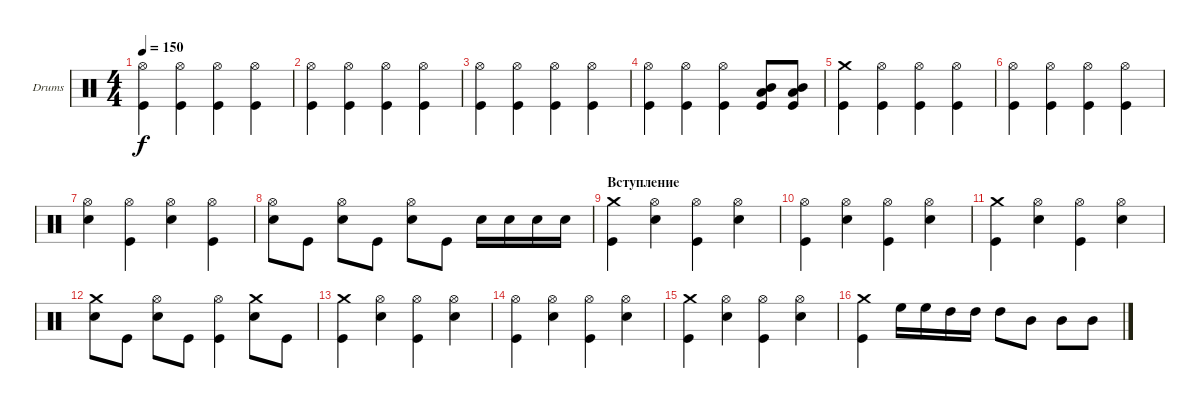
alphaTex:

\defaultSystemsLayout 4
\bracketExtendMode groupsimilarinstruments
\firstSystemTrackNameOrientation horizontal
\otherSystemsTrackNameOrientation horizontal
\track ("Drumkit" "Drums") {instrument percussion}
\staff {score}
\articulation defaults
\ts (4 4)
\tempo 150
\clef neutral
\ks c
("Hi-Hat (open)" "Kick (hit)").4{dy f} ("Hi-Hat (open)" "Kick (hit)").4 ("Hi-Hat (open)" "Kick (hit)").4 ("Hi-Hat (open)" "Kick (hit)").4 |
("Hi-Hat (open)" "Kick (hit)").4 ("Hi-Hat (open)" "Kick (hit)").4 ("Hi-Hat (open)" "Kick (hit)").4 ("Hi-Hat (open)" "Kick (hit)").4 |
("Hi-Hat (open)" "Kick (hit)").4 ("Hi-Hat (open)" "Kick (hit)").4 ("Hi-Hat (open)" "Kick (hit)").4 ("Hi-Hat (open)" "Kick (hit)").4 |
("Hi-Hat (open)" "Kick (hit)").4 ("Hi-Hat (open)" "Kick (hit)").4 ("Hi-Hat (open)" "Kick (hit)").4 ("Kick (hit)" "Low Tom (hit)" "Mid Tom (hit)").8 ("Kick (hit)" "Low Tom (hit)" "Mid Tom (hit)").8 |
("Kick (hit)" "Crash medium (hit)").4 ("Hi-Hat (open)" "Kick (hit)").4 ("Hi-Hat (open)" "Kick (hit)").4 ("Hi-Hat (open)" "Kick (hit)").4 |
("Hi-Hat (open)" "Kick (hit)").4 ("Hi-Hat (open)" "Kick (hit)").4 ("Hi-Hat (open)" "Kick (hit)").4 ("Hi-Hat (open)" "Kick (hit)").4 |
("Hi-Hat (open)" "Snare (hit) 2").4 ("Hi-Hat (open)" "Kick (hit)").4 ("Hi-Hat (open)" "Snare (hit) 2").4 ("Hi-Hat (open)" "Kick (hit)").4 |
("Hi-Hat (open)" "Snare (hit) 2").8 "Kick (hit)".8 ("Hi-Hat (open)" "Snare (hit) 2").8 "Kick (hit)".8 ("Hi-Hat (open)" "Snare (hit) 2").8 "Kick (hit)".8 "Snare (hit) 2".16 "Snare (hit) 2".16 "Snare (hit) 2".16 "Snare (hit) 2".16 |
\section ("" "Вступление")
("Kick (hit)" "Crash medium (hit)").4 ("Hi-Hat (open)" "Snare (hit) 2").4 ("Hi-Hat (open)" "Kick (hit)").4 ("Hi-Hat (open)" "Snare (hit) 2").4 |
("Hi-Hat (open)" "Kick (hit)").4 ("Snare (hit) 2" "Hi-Hat (open)").4 ("Kick (hit)" "Hi-Hat (open)").4 ("Snare (hit) 2" "Hi-Hat (open)").4 |
("Kick (hit)" "Crash medium (hit)").4 ("Hi-Hat (open)" "Snare (hit) 2").4 ("Hi-Hat (open)" "Kick (hit)").4 ("Hi-Hat (open)" "Snare (hit) 2").4 |
("Crash medium (hit)" "Snare (hit) 2").8 "Kick (hit)".8 ("Snare (hit) 2" "Hi-Hat (open)").8 "Kick (hit)".8 ("Kick (hit)" "Hi-Hat (open)").4 ("Snare (hit) 2" "Crash medium (hit)").8 "Kick (hit)".8 |
("Kick (hit)" "Crash medium (hit)").4 ("Hi-Hat (open)" "Snare (hit) 2").4 ("Hi-Hat (open)" "Kick (hit)").4 ("Hi-Hat (open)" "Snare (hit) 2").4 |
("Hi-Hat (open)" "Kick (hit)").4 ("Snare (hit) 2" "Hi-Hat (open)").4 ("Kick (hit)" "Hi-Hat (open)").4 ("Snare (hit) 2" "Hi-Hat (open)").4 |
("Kick (hit)" "Crash medium (hit)").4 ("Hi-Hat (open)" "Snare (hit) 2").4 ("Hi-Hat (open)" "Kick (hit)").4 ("Hi-Hat (open)" "Snare (hit) 2").4 |
("Crash medium (hit)" "Kick (hit)").4 "High Floor Tom (hit)".16 "High Floor Tom (hit)".16 "High Tom (hit)".16 "High Tom (hit)".16 "High Tom (hit)".8 "Mid Tom (hit)".8 "Mid Tom (hit)".8 "Mid Tom (hit)".8
